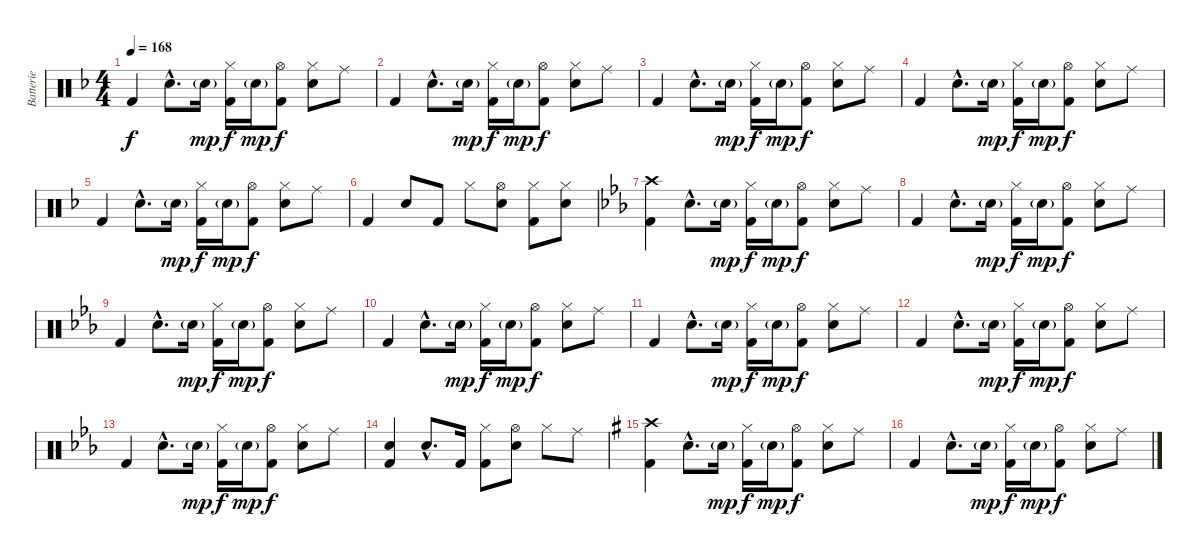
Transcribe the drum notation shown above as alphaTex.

\track ("Batterie" "Batterie") {instrument percussion}
\staff {score}
\articulation defaults
\ts (4 4)
\tempo 168
\clef neutral
\ks f "Kick (hit) 2".4{dy f} "Snare (hit) 2"{hac}.8{d} "Snare (hit) 2"{g}.16{dy mp}
("Hi-Hat (closed)" "Kick (hit) 2").16{dy f} "Snare (hit) 2"{g}.16{dy mp} ("Hi-Hat (open)" "Kick (hit) 2").8{dy f} ("Hi-Hat (closed)" "Snare (hit) 2").8 "Ride (middle)".8 |
"Kick (hit) 2".4 "Snare (hit) 2"{hac}.8{d} "Snare (hit) 2"{g}.16{dy mp} ("Hi-Hat (closed)" "Kick (hit) 2").16{dy f} "Snare (hit) 2"{g}.16{dy mp} ("Hi-Hat (open)" "Kick (hit) 2").8{dy f} ("Hi-Hat (closed)" "Snare (hit) 2").8 "Ride (middle)".8 |
"Kick (hit) 2".4 "Snare (hit) 2"{hac}.8{d} "Snare (hit) 2"{g}.16{dy mp} ("Hi-Hat (closed)" "Kick (hit) 2").16{dy f} "Snare (hit) 2"{g}.16{dy mp} ("Hi-Hat (open)" "Kick (hit) 2").8{dy f} ("Hi-Hat (closed)" "Snare (hit) 2").8 "Ride (middle)".8 |
"Kick (hit) 2".4 "Snare (hit) 2"{hac}.8{d} "Snare (hit) 2"{g}.16{dy mp} ("Hi-Hat (closed)" "Kick (hit) 2").16{dy f} "Snare (hit) 2"{g}.16{dy mp} ("Hi-Hat (open)" "Kick (hit) 2").8{dy f} ("Hi-Hat (closed)" "Snare (hit) 2").8 "Ride (middle)".8 |
"Kick (hit) 2".4 "Snare (hit) 2"{hac}.8{d} "Snare (hit) 2"{g}.16{dy mp} ("Hi-Hat (closed)" "Kick (hit) 2").16{dy f} "Snare (hit) 2"{g}.16{dy mp} ("Hi-Hat (open)" "Kick (hit) 2").8{dy f} ("Hi-Hat (closed)" "Snare (hit) 2").8 "Ride (middle)".8 |
"Kick (hit) 2".4 "Snare (hit) 2".8 "Kick (hit) 2".8 "Hi-Hat (closed)".8 ("Hi-Hat (open)" "Snare (hit) 2").8 ("Hi-Hat (closed)" "Kick (hit) 2").8 ("Hi-Hat (closed)" "Snare (hit) 2").8 |
\ks eb
("Crash high (hit)" "Kick (hit) 2").4 "Snare (hit) 2"{hac}.8{d} "Snare (hit) 2"{g}.16{dy mp} ("Hi-Hat (closed)" "Kick (hit) 2").16{dy f} "Snare (hit) 2"{g}.16{dy mp} ("Hi-Hat (open)" "Kick (hit) 2").8{dy f} ("Hi-Hat (closed)" "Snare (hit) 2").8 "Ride (middle)".8 |
"Kick (hit) 2".4 "Snare (hit) 2"{hac}.8{d} "Snare (hit) 2"{g}.16{dy mp} ("Hi-Hat (closed)" "Kick (hit) 2").16{dy f} "Snare (hit) 2"{g}.16{dy mp} ("Hi-Hat (open)" "Kick (hit) 2").8{dy f} ("Hi-Hat (closed)" "Snare (hit) 2").8 "Ride (middle)".8 |
"Kick (hit) 2".4 "Snare (hit) 2"{hac}.8{d} "Snare (hit) 2"{g}.16{dy mp} ("Hi-Hat (closed)" "Kick (hit) 2").16{dy f} "Snare (hit) 2"{g}.16{dy mp} ("Hi-Hat (open)" "Kick (hit) 2").8{dy f} ("Hi-Hat (closed)" "Snare (hit) 2").8 "Ride (middle)".8 |
"Kick (hit) 2".4 "Snare (hit) 2"{hac}.8{d} "Snare (hit) 2"{g}.16{dy mp} ("Hi-Hat (closed)" "Kick (hit) 2").16{dy f} "Snare (hit) 2"{g}.16{dy mp} ("Hi-Hat (open)" "Kick (hit) 2").8{dy f} ("Hi-Hat (closed)" "Snare (hit) 2").8 "Ride (middle)".8 |
"Kick (hit) 2".4 "Snare (hit) 2"{hac}.8{d} "Snare (hit) 2"{g}.16{dy mp} ("Hi-Hat (closed)" "Kick (hit) 2").16{dy f} "Snare (hit) 2"{g}.16{dy mp} ("Hi-Hat (open)" "Kick (hit) 2").8{dy f} ("Hi-Hat (closed)" "Snare (hit) 2").8 "Ride (middle)".8 |
"Kick (hit) 2".4 "Snare (hit) 2"{hac}.8{d} "Snare (hit) 2"{g}.16{dy mp} ("Hi-Hat (closed)" "Kick (hit) 2").16{dy f} "Snare (hit) 2"{g}.16{dy mp} ("Hi-Hat (open)" "Kick (hit) 2").8{dy f} ("Hi-Hat (closed)" "Snare (hit) 2").8 "Ride (middle)".8 |
"Kick (hit) 2".4 "Snare (hit) 2"{hac}.8{d} "Snare (hit) 2"{g}.16{dy mp} ("Hi-Hat (closed)" "Kick (hit) 2").16{dy f} "Snare (hit) 2"{g}.16{dy mp} ("Hi-Hat (open)" "Kick (hit) 2").8{dy f} ("Hi-Hat (closed)" "Snare (hit) 2").8 "Ride (middle)".8 |
("Snare (hit) 2" "Kick (hit) 2").4 "Snare (hit) 2"{hac}.8{d} "Kick (hit) 2".16 ("Hi-Hat (closed)" "Kick (hit) 2").8 ("Hi-Hat (open)" "Snare (hit) 2").8 "Hi-Hat (closed)".8 "Ride (middle)".8 |
\ks g
("Crash high (hit)" "Kick (hit) 2").4 "Snare (hit) 2"{hac}.8{d} "Snare (hit) 2"{g}.16{dy mp} ("Hi-Hat (closed)" "Kick (hit) 2").16{dy f} "Snare (hit) 2"{g}.16{dy mp} ("Hi-Hat (open)" "Kick (hit) 2").8{dy f} ("Hi-Hat (closed)" "Snare (hit) 2").8 "Ride (middle)".8 |
"Kick (hit) 2".4 "Snare (hit) 2"{hac}.8{d} "Snare (hit) 2"{g}.16{dy mp} ("Hi-Hat (closed)" "Kick (hit) 2").16{dy f} "Snare (hit) 2"{g}.16{dy mp} ("Hi-Hat (open)" "Kick (hit) 2").8{dy f} ("Hi-Hat (closed)" "Snare (hit) 2").8 "Ride (middle)".8
